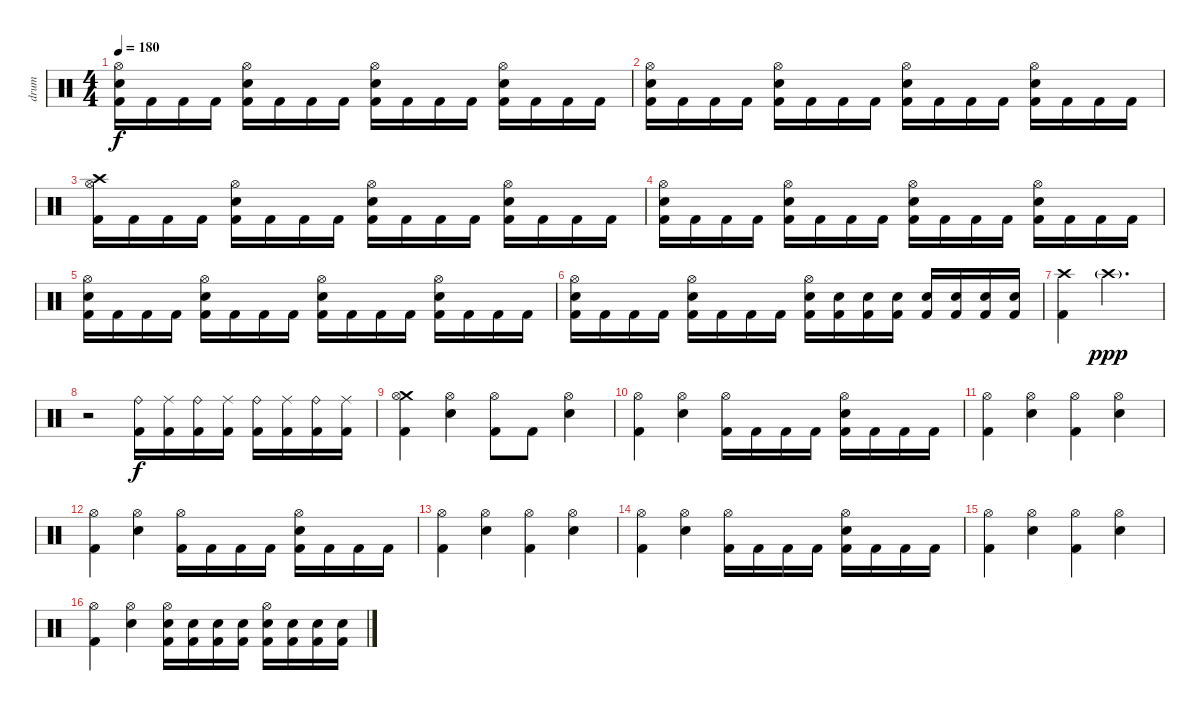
\track ("drum" "drum") {instrument percussion}
\staff {score}
\articulation defaults
\ts (4 4)
\tempo 180
\clef neutral
\ks c
("Hi-Hat (open)" "Electric Snare (hit)" "Kick (hit) 2").16{dy f} "Kick (hit) 2".16 "Kick (hit) 2".16 "Kick (hit) 2".16 ("Hi-Hat (open)" "Electric Snare (hit)" "Kick (hit) 2").16 "Kick (hit) 2".16 "Kick (hit) 2".16 "Kick (hit) 2".16 ("Hi-Hat (open)" "Electric Snare (hit)" "Kick (hit) 2").16 "Kick (hit) 2".16 "Kick (hit) 2".16 "Kick (hit) 2".16 ("Hi-Hat (open)" "Electric Snare (hit)" "Kick (hit) 2").16 "Kick (hit) 2".16 "Kick (hit) 2".16 "Kick (hit) 2".16 |
("Hi-Hat (open)" "Electric Snare (hit)" "Kick (hit) 2").16 "Kick (hit) 2".16 "Kick (hit) 2".16 "Kick (hit) 2".16 ("Hi-Hat (open)" "Electric Snare (hit)" "Kick (hit) 2").16 "Kick (hit) 2".16 "Kick (hit) 2".16 "Kick (hit) 2".16 ("Hi-Hat (open)" "Electric Snare (hit)" "Kick (hit) 2").16 "Kick (hit) 2".16 "Kick (hit) 2".16 "Kick (hit) 2".16 ("Hi-Hat (open)" "Electric Snare (hit)" "Kick (hit) 2").16 "Kick (hit) 2".16 "Kick (hit) 2".16 "Kick (hit) 2".16 |
("Hi-Hat (open)" "Crash high (hit)" "Kick (hit) 2").16 "Kick (hit) 2".16 "Kick (hit) 2".16 "Kick (hit) 2".16 ("Hi-Hat (open)" "Electric Snare (hit)" "Kick (hit) 2").16 "Kick (hit) 2".16 "Kick (hit) 2".16 "Kick (hit) 2".16 ("Hi-Hat (open)" "Electric Snare (hit)" "Kick (hit) 2").16 "Kick (hit) 2".16 "Kick (hit) 2".16 "Kick (hit) 2".16 ("Hi-Hat (open)" "Electric Snare (hit)" "Kick (hit) 2").16 "Kick (hit) 2".16 "Kick (hit) 2".16 "Kick (hit) 2".16 |
("Hi-Hat (open)" "Electric Snare (hit)" "Kick (hit) 2").16 "Kick (hit) 2".16 "Kick (hit) 2".16 "Kick (hit) 2".16 ("Hi-Hat (open)" "Electric Snare (hit)" "Kick (hit) 2").16 "Kick (hit) 2".16 "Kick (hit) 2".16 "Kick (hit) 2".16 ("Hi-Hat (open)" "Electric Snare (hit)" "Kick (hit) 2").16 "Kick (hit) 2".16 "Kick (hit) 2".16 "Kick (hit) 2".16 ("Hi-Hat (open)" "Electric Snare (hit)" "Kick (hit) 2").16 "Kick (hit) 2".16 "Kick (hit) 2".16 "Kick (hit) 2".16 |
("Hi-Hat (open)" "Electric Snare (hit)" "Kick (hit) 2").16 "Kick (hit) 2".16 "Kick (hit) 2".16 "Kick (hit) 2".16 ("Hi-Hat (open)" "Electric Snare (hit)" "Kick (hit) 2").16 "Kick (hit) 2".16 "Kick (hit) 2".16 "Kick (hit) 2".16 ("Hi-Hat (open)" "Electric Snare (hit)" "Kick (hit) 2").16 "Kick (hit) 2".16 "Kick (hit) 2".16 "Kick (hit) 2".16 ("Hi-Hat (open)" "Electric Snare (hit)" "Kick (hit) 2").16 "Kick (hit) 2".16 "Kick (hit) 2".16 "Kick (hit) 2".16 |
("Hi-Hat (open)" "Electric Snare (hit)" "Kick (hit) 2").16 "Kick (hit) 2".16 "Kick (hit) 2".16 "Kick (hit) 2".16 ("Hi-Hat (open)" "Electric Snare (hit)" "Kick (hit) 2").16 "Kick (hit) 2".16 "Kick (hit) 2".16 "Kick (hit) 2".16 ("Hi-Hat (open)" "Electric Snare (hit)" "Kick (hit) 2").16 ("Electric Snare (hit)" "Kick (hit) 2").16 ("Electric Snare (hit)" "Kick (hit) 2").16 ("Electric Snare (hit)" "Kick (hit) 2").16 ("Electric Snare (hit)" "Kick (hit) 2").16 ("Electric Snare (hit)" "Kick (hit) 2").16 ("Electric Snare (hit)" "Kick (hit) 2").16 ("Electric Snare (hit)" "Kick (hit) 2").16 |
("Crash high (hit)" "Kick (hit) 2").4 "Crash high (hit)"{g}.2{d dy ppp} |
r.2 ("Ride (bell)" "Kick (hit) 2").16{dy f} ("Ride (middle)" "Kick (hit) 2").16 ("Ride (bell)" "Kick (hit) 2").16 ("Ride (middle)" "Kick (hit) 2").16 ("Ride (bell)" "Kick (hit) 2").16 ("Ride (middle)" "Kick (hit) 2").16 ("Ride (bell)" "Kick (hit) 2").16 ("Ride (middle)" "Kick (hit) 2").16 |
("Crash medium (hit)" "Hi-Hat (open)" "Kick (hit) 2").4 ("Hi-Hat (open)" "Electric Snare (hit)").4 ("Hi-Hat (open)" "Kick (hit) 2").8 "Kick (hit) 2".8 ("Hi-Hat (open)" "Electric Snare (hit)").4 |
("Hi-Hat (open)" "Kick (hit) 2").4 ("Hi-Hat (open)" "Electric Snare (hit)").4 ("Hi-Hat (open)" "Kick (hit) 2").16 "Kick (hit) 2".16 "Kick (hit) 2".16 "Kick (hit) 2".16 ("Hi-Hat (open)" "Electric Snare (hit)" "Kick (hit) 2").16 "Kick (hit) 2".16 "Kick (hit) 2".16 "Kick (hit) 2".16 |
("Hi-Hat (open)" "Kick (hit) 2").4 ("Hi-Hat (open)" "Electric Snare (hit)").4 ("Hi-Hat (open)" "Kick (hit) 2").4 ("Hi-Hat (open)" "Electric Snare (hit)").4 |
("Hi-Hat (open)" "Kick (hit) 2").4 ("Hi-Hat (open)" "Electric Snare (hit)").4 ("Hi-Hat (open)" "Kick (hit) 2").16 "Kick (hit) 2".16 "Kick (hit) 2".16 "Kick (hit) 2".16 ("Hi-Hat (open)" "Electric Snare (hit)" "Kick (hit) 2").16 "Kick (hit) 2".16 "Kick (hit) 2".16 "Kick (hit) 2".16 |
("Hi-Hat (open)" "Kick (hit) 2").4 ("Hi-Hat (open)" "Electric Snare (hit)").4 ("Hi-Hat (open)" "Kick (hit) 2").4 ("Hi-Hat (open)" "Electric Snare (hit)").4 |
("Hi-Hat (open)" "Kick (hit) 2").4 ("Hi-Hat (open)" "Electric Snare (hit)").4 ("Hi-Hat (open)" "Kick (hit) 2").16 "Kick (hit) 2".16 "Kick (hit) 2".16 "Kick (hit) 2".16 ("Hi-Hat (open)" "Electric Snare (hit)" "Kick (hit) 2").16 "Kick (hit) 2".16 "Kick (hit) 2".16 "Kick (hit) 2".16 |
("Hi-Hat (open)" "Kick (hit) 2").4 ("Hi-Hat (open)" "Electric Snare (hit)").4 ("Hi-Hat (open)" "Kick (hit) 2").4 ("Hi-Hat (open)" "Electric Snare (hit)").4 |
("Hi-Hat (open)" "Kick (hit) 2").4 ("Hi-Hat (open)" "Electric Snare (hit)").4 ("Hi-Hat (open)" "Electric Snare (hit)" "Kick (hit) 2").16 ("Electric Snare (hit)" "Kick (hit) 2").16 ("Electric Snare (hit)" "Kick (hit) 2").16 ("Electric Snare (hit)" "Kick (hit) 2").16 ("Hi-Hat (open)" "Electric Snare (hit)" "Kick (hit) 2").16 ("Electric Snare (hit)" "Kick (hit) 2").16 ("Electric Snare (hit)" "Kick (hit) 2").16 ("Electric Snare (hit)" "Kick (hit) 2").16
